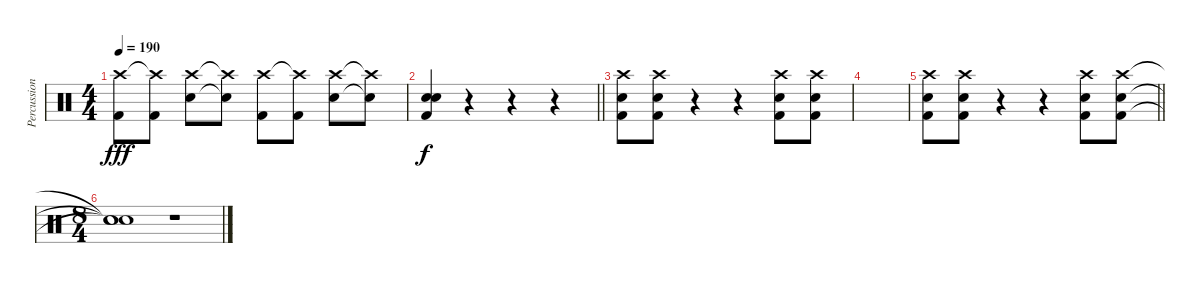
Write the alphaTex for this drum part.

\track ("Percussion" "Percussion") {instrument percussion}
\staff {score}
\articulation defaults
\ts (4 4)
\tempo 190
\clef neutral
\ks c
("Crash high (hit)" "Kick (hit) 2").8{dy fff} ("Crash high (hit)"{t} "Kick (hit) 2").8 ("Crash high (hit)" "Snare (hit) 2").8 ("Crash high (hit)"{t} "Snare (hit)"{t}).8 ("Crash high (hit)" "Kick (hit) 2").8 ("Crash high (hit)"{t} "Kick (hit) 2").8 ("Crash high (hit)" "Snare (hit) 2").8 ("Crash high (hit)"{t} "Snare (hit)"{t}).8 |
\barLineRight lightlight
("Electric Snare (hit)" "Snare (hit) 2" "Kick (hit) 2").4{dy f} r.4 r.4 r.4 |
\section ("" "")
("Crash high (hit)" "Snare (hit) 2" "Kick (hit) 2").8 ("Crash high (hit)" "Snare (hit) 2" "Kick (hit) 2").8 r.4 r.4 ("Crash high (hit)" "Snare (hit) 2" "Kick (hit) 2").8 ("Crash high (hit)" "Snare (hit) 2" "Kick (hit) 2").8 |
|
\barLineRight lightlight
("Crash high (hit)" "Snare (hit) 2" "Kick (hit) 2").8 ("Crash high (hit)" "Snare (hit) 2" "Kick (hit) 2").8 r.4 r.4 ("Crash high (hit)" "Snare (hit) 2" "Kick (hit) 2").8 ("Crash high (hit)" "Snare (hit) 2" "Kick (hit) 2").8 |
\ts (8 4)
\section ("" "")
("Snare (hit)"{t} "Snare (hit)"{t} "Snare (hit)"{t}).1 r.1
